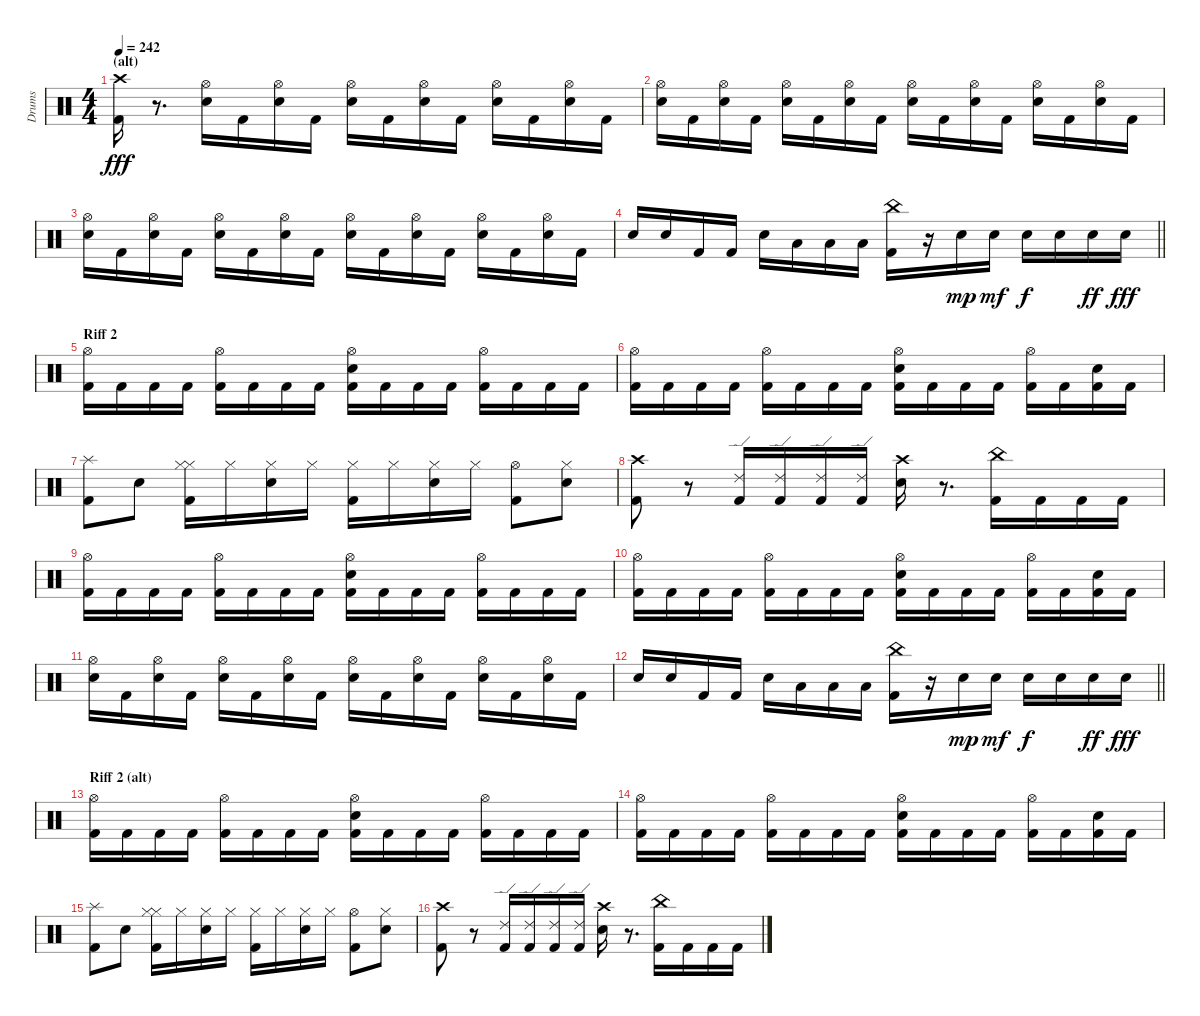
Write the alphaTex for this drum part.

\track ("Drums" "Drums") {instrument percussion}
\staff {score}
\articulation defaults
\ts (4 4)
\section ("" "(alt)")
\tempo 242
\clef neutral
\ks c
("Kick (hit) 2" "Crash high (hit)").16{dy fff} r.8{d} ("Snare (hit) 2" "Hi-Hat (open)").16 "Kick (hit) 2".16 ("Snare (hit) 2" "Hi-Hat (open)").16 "Kick (hit) 2".16 ("Snare (hit) 2" "Hi-Hat (open)").16 "Kick (hit) 2".16 ("Snare (hit) 2" "Hi-Hat (open)").16 "Kick (hit) 2".16 ("Snare (hit) 2" "Hi-Hat (open)").16 "Kick (hit) 2".16 ("Snare (hit) 2" "Hi-Hat (open)").16 "Kick (hit) 2".16 |
("Snare (hit) 2" "Hi-Hat (open)").16 "Kick (hit) 2".16 ("Snare (hit) 2" "Hi-Hat (open)").16 "Kick (hit) 2".16 ("Snare (hit) 2" "Hi-Hat (open)").16 "Kick (hit) 2".16 ("Snare (hit) 2" "Hi-Hat (open)").16 "Kick (hit) 2".16 ("Snare (hit) 2" "Hi-Hat (open)").16 "Kick (hit) 2".16 ("Snare (hit) 2" "Hi-Hat (open)").16 "Kick (hit) 2".16 ("Snare (hit) 2" "Hi-Hat (open)").16 "Kick (hit) 2".16 ("Snare (hit) 2" "Hi-Hat (open)").16 "Kick (hit) 2".16 |
("Snare (hit) 2" "Hi-Hat (open)").16 "Kick (hit) 2".16 ("Snare (hit) 2" "Hi-Hat (open)").16 "Kick (hit) 2".16 ("Snare (hit) 2" "Hi-Hat (open)").16 "Kick (hit) 2".16 ("Snare (hit) 2" "Hi-Hat (open)").16 "Kick (hit) 2".16 ("Snare (hit) 2" "Hi-Hat (open)").16 "Kick (hit) 2".16 ("Snare (hit) 2" "Hi-Hat (open)").16 "Kick (hit) 2".16 ("Snare (hit) 2" "Hi-Hat (open)").16 "Kick (hit) 2".16 ("Snare (hit) 2" "Hi-Hat (open)").16 "Kick (hit) 2".16 |
\barLineRight lightlight "Snare (hit) 2".16 "Snare (hit) 2".16 "Kick (hit) 2".16 "Kick (hit) 2".16 "Snare (hit) 2".16 "Low Tom (hit)".16 "Low Tom (hit)".16 "Low Tom (hit)".16
("Kick (hit) 2" "China (hit)").16 r.16 "Snare (hit) 2".16{dy mp} "Snare (hit) 2".16{dy mf} "Snare (hit) 2".16{dy f} "Snare (hit) 2".16 "Snare (hit) 2".16{dy ff} "Snare (hit) 2".16{dy fff} |
\section ("" "Riff 2")
("Kick (hit) 2" "Hi-Hat (open)").16 "Kick (hit) 2".16 "Kick (hit) 2".16 "Kick (hit) 2".16 ("Kick (hit) 2" "Hi-Hat (open)").16 "Kick (hit) 2".16 "Kick (hit) 2".16 "Kick (hit) 2".16 ("Kick (hit) 2" "Snare (hit) 2" "Hi-Hat (open)").16 "Kick (hit) 2".16 "Kick (hit) 2".16 "Kick (hit) 2".16 ("Kick (hit) 2" "Hi-Hat (open)").16 "Kick (hit) 2".16 "Kick (hit) 2".16 "Kick (hit) 2".16 |
("Kick (hit) 2" "Hi-Hat (open)").16 "Kick (hit) 2".16 "Kick (hit) 2".16 "Kick (hit) 2".16 ("Kick (hit) 2" "Hi-Hat (open)").16 "Kick (hit) 2".16 "Kick (hit) 2".16 "Kick (hit) 2".16 ("Kick (hit) 2" "Snare (hit) 2" "Hi-Hat (open)").16 "Kick (hit) 2".16 "Kick (hit) 2".16 "Kick (hit) 2".16 ("Kick (hit) 2" "Hi-Hat (open)").16 "Kick (hit) 2".16 ("Kick (hit) 2" "Snare (hit) 2").16 "Kick (hit) 2".16 |
("Kick (hit) 2" "Splash (hit)").8 "Snare (hit) 2".8 ("Kick (hit) 2" "Hi-Hat (closed)" "Hi-Hat (closed)").16 "Hi-Hat (closed)".16 ("Snare (hit) 2" "Hi-Hat (closed)").16 "Hi-Hat (closed)".16 ("Kick (hit) 2" "Hi-Hat (closed)").16 "Hi-Hat (closed)".16 ("Snare (hit) 2" "Hi-Hat (closed)").16 "Hi-Hat (closed)".16 ("Kick (hit) 2" "Hi-Hat (open)").8 ("Snare (hit) 2" "Hi-Hat (closed)").8 |
("Kick (hit) 2" "Crash high (hit)").8 r.8 ("Kick (hit) 2" "Ride (edge) 2").16 ("Kick (hit) 2" "Ride (edge) 2").16 ("Kick (hit) 2" "Ride (edge) 2").16 ("Kick (hit) 2" "Ride (edge) 2").16 ("Snare (hit) 2" "Crash high (hit)").16 r.8{d} ("Kick (hit) 2" "China (hit)").16 "Kick (hit) 2".16 "Kick (hit) 2".16 "Kick (hit) 2".16 |
("Kick (hit) 2" "Hi-Hat (open)").16 "Kick (hit) 2".16 "Kick (hit) 2".16 "Kick (hit) 2".16 ("Kick (hit) 2" "Hi-Hat (open)").16 "Kick (hit) 2".16 "Kick (hit) 2".16 "Kick (hit) 2".16 ("Kick (hit) 2" "Snare (hit) 2" "Hi-Hat (open)").16 "Kick (hit) 2".16 "Kick (hit) 2".16 "Kick (hit) 2".16 ("Kick (hit) 2" "Hi-Hat (open)").16 "Kick (hit) 2".16 "Kick (hit) 2".16 "Kick (hit) 2".16 |
("Kick (hit) 2" "Hi-Hat (open)").16 "Kick (hit) 2".16 "Kick (hit) 2".16 "Kick (hit) 2".16 ("Kick (hit) 2" "Hi-Hat (open)").16 "Kick (hit) 2".16 "Kick (hit) 2".16 "Kick (hit) 2".16 ("Kick (hit) 2" "Snare (hit) 2" "Hi-Hat (open)").16 "Kick (hit) 2".16 "Kick (hit) 2".16 "Kick (hit) 2".16 ("Kick (hit) 2" "Hi-Hat (open)").16 "Kick (hit) 2".16 ("Kick (hit) 2" "Snare (hit) 2").16 "Kick (hit) 2".16 |
("Snare (hit) 2" "Hi-Hat (open)").16 "Kick (hit) 2".16 ("Snare (hit) 2" "Hi-Hat (open)").16 "Kick (hit) 2".16 ("Snare (hit) 2" "Hi-Hat (open)").16 "Kick (hit) 2".16 ("Snare (hit) 2" "Hi-Hat (open)").16 "Kick (hit) 2".16 ("Snare (hit) 2" "Hi-Hat (open)").16 "Kick (hit) 2".16 ("Snare (hit) 2" "Hi-Hat (open)").16 "Kick (hit) 2".16 ("Snare (hit) 2" "Hi-Hat (open)").16 "Kick (hit) 2".16 ("Snare (hit) 2" "Hi-Hat (open)").16 "Kick (hit) 2".16 |
\barLineRight lightlight "Snare (hit) 2".16 "Snare (hit) 2".16 "Kick (hit) 2".16 "Kick (hit) 2".16 "Snare (hit) 2".16 "Low Tom (hit)".16 "Low Tom (hit)".16 "Low Tom (hit)".16
("Kick (hit) 2" "China (hit)").16 r.16 "Snare (hit) 2".16{dy mp} "Snare (hit) 2".16{dy mf} "Snare (hit) 2".16{dy f} "Snare (hit) 2".16 "Snare (hit) 2".16{dy ff} "Snare (hit) 2".16{dy fff} |
\section ("" "Riff 2 (alt)")
("Kick (hit) 2" "Hi-Hat (open)").16 "Kick (hit) 2".16 "Kick (hit) 2".16 "Kick (hit) 2".16 ("Kick (hit) 2" "Hi-Hat (open)").16 "Kick (hit) 2".16 "Kick (hit) 2".16 "Kick (hit) 2".16 ("Kick (hit) 2" "Snare (hit) 2" "Hi-Hat (open)").16 "Kick (hit) 2".16 "Kick (hit) 2".16 "Kick (hit) 2".16 ("Kick (hit) 2" "Hi-Hat (open)").16 "Kick (hit) 2".16 "Kick (hit) 2".16 "Kick (hit) 2".16 |
("Kick (hit) 2" "Hi-Hat (open)").16 "Kick (hit) 2".16 "Kick (hit) 2".16 "Kick (hit) 2".16 ("Kick (hit) 2" "Hi-Hat (open)").16 "Kick (hit) 2".16 "Kick (hit) 2".16 "Kick (hit) 2".16 ("Kick (hit) 2" "Snare (hit) 2" "Hi-Hat (open)").16 "Kick (hit) 2".16 "Kick (hit) 2".16 "Kick (hit) 2".16 ("Kick (hit) 2" "Hi-Hat (open)").16 "Kick (hit) 2".16 ("Kick (hit) 2" "Snare (hit) 2").16 "Kick (hit) 2".16 |
("Kick (hit) 2" "Splash (hit)").8 "Snare (hit) 2".8 ("Kick (hit) 2" "Hi-Hat (closed)" "Hi-Hat (closed)").16 "Hi-Hat (closed)".16 ("Snare (hit) 2" "Hi-Hat (closed)").16 "Hi-Hat (closed)".16 ("Kick (hit) 2" "Hi-Hat (closed)").16 "Hi-Hat (closed)".16 ("Snare (hit) 2" "Hi-Hat (closed)").16 "Hi-Hat (closed)".16 ("Kick (hit) 2" "Hi-Hat (open)").8 ("Snare (hit) 2" "Hi-Hat (closed)").8 |
("Kick (hit) 2" "Crash high (hit)").8 r.8 ("Kick (hit) 2" "Ride (edge) 2").16 ("Kick (hit) 2" "Ride (edge) 2").16 ("Kick (hit) 2" "Ride (edge) 2").16 ("Kick (hit) 2" "Ride (edge) 2").16 ("Snare (hit) 2" "Crash high (hit)").16 r.8{d} ("Kick (hit) 2" "China (hit)").16 "Kick (hit) 2".16 "Kick (hit) 2".16 "Kick (hit) 2".16
